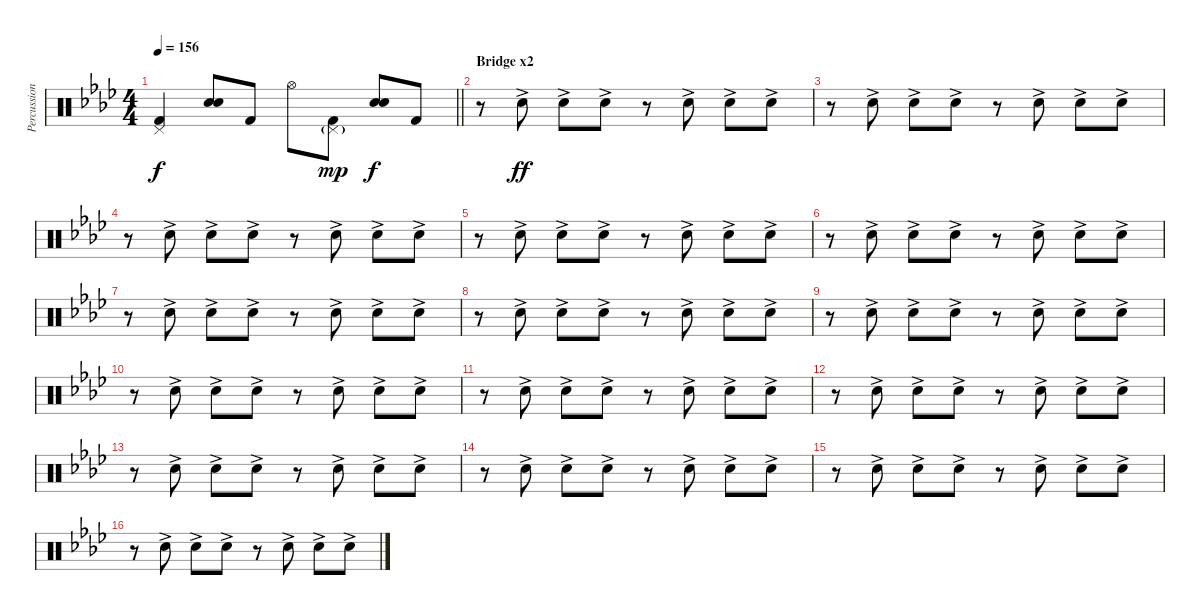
\track ("Percussion" "Percussion") {instrument percussion}
\staff {score}
\articulation defaults
\ts (4 4)
\tempo 156
\clef neutral
\barLineRight lightlight
\ks fminor
("Pedal Hi-Hat (hit)" "Kick (hit) 2").4{dy f} ("Hand Clap (hit)" "Electric Snare (hit)").8 "Kick (hit) 2".8 "Hi-Hat (open)".8 ("Pedal Hi-Hat (hit)"{g} "Kick (hit) 2").8{dy mp} ("Hand Clap (hit)" "Electric Snare (hit)").8{dy f} "Kick (hit) 2".8 |
\section ("" "Bridge x2")
r.8 "Hand Clap (hit)"{ac}.8{dy ff} "Hand Clap (hit)"{ac}.8 "Hand Clap (hit)"{ac}.8 r.8 "Hand Clap (hit)"{ac}.8 "Hand Clap (hit)"{ac}.8 "Hand Clap (hit)"{ac}.8 |
r.8 "Hand Clap (hit)"{ac}.8 "Hand Clap (hit)"{ac}.8 "Hand Clap (hit)"{ac}.8 r.8 "Hand Clap (hit)"{ac}.8 "Hand Clap (hit)"{ac}.8 "Hand Clap (hit)"{ac}.8 |
r.8 "Hand Clap (hit)"{ac}.8 "Hand Clap (hit)"{ac}.8 "Hand Clap (hit)"{ac}.8 r.8 "Hand Clap (hit)"{ac}.8 "Hand Clap (hit)"{ac}.8 "Hand Clap (hit)"{ac}.8 |
r.8 "Hand Clap (hit)"{ac}.8 "Hand Clap (hit)"{ac}.8 "Hand Clap (hit)"{ac}.8 r.8 "Hand Clap (hit)"{ac}.8 "Hand Clap (hit)"{ac}.8 "Hand Clap (hit)"{ac}.8 |
r.8 "Hand Clap (hit)"{ac}.8 "Hand Clap (hit)"{ac}.8 "Hand Clap (hit)"{ac}.8 r.8 "Hand Clap (hit)"{ac}.8 "Hand Clap (hit)"{ac}.8 "Hand Clap (hit)"{ac}.8 |
r.8 "Hand Clap (hit)"{ac}.8 "Hand Clap (hit)"{ac}.8 "Hand Clap (hit)"{ac}.8 r.8 "Hand Clap (hit)"{ac}.8 "Hand Clap (hit)"{ac}.8 "Hand Clap (hit)"{ac}.8 |
r.8 "Hand Clap (hit)"{ac}.8 "Hand Clap (hit)"{ac}.8 "Hand Clap (hit)"{ac}.8 r.8 "Hand Clap (hit)"{ac}.8 "Hand Clap (hit)"{ac}.8 "Hand Clap (hit)"{ac}.8 |
r.8 "Hand Clap (hit)"{ac}.8 "Hand Clap (hit)"{ac}.8 "Hand Clap (hit)"{ac}.8 r.8 "Hand Clap (hit)"{ac}.8 "Hand Clap (hit)"{ac}.8 "Hand Clap (hit)"{ac}.8 |
r.8 "Hand Clap (hit)"{ac}.8 "Hand Clap (hit)"{ac}.8 "Hand Clap (hit)"{ac}.8 r.8 "Hand Clap (hit)"{ac}.8 "Hand Clap (hit)"{ac}.8 "Hand Clap (hit)"{ac}.8 |
r.8 "Hand Clap (hit)"{ac}.8 "Hand Clap (hit)"{ac}.8 "Hand Clap (hit)"{ac}.8 r.8 "Hand Clap (hit)"{ac}.8 "Hand Clap (hit)"{ac}.8 "Hand Clap (hit)"{ac}.8 |
r.8 "Hand Clap (hit)"{ac}.8 "Hand Clap (hit)"{ac}.8 "Hand Clap (hit)"{ac}.8 r.8 "Hand Clap (hit)"{ac}.8 "Hand Clap (hit)"{ac}.8 "Hand Clap (hit)"{ac}.8 |
r.8 "Hand Clap (hit)"{ac}.8 "Hand Clap (hit)"{ac}.8 "Hand Clap (hit)"{ac}.8 r.8 "Hand Clap (hit)"{ac}.8 "Hand Clap (hit)"{ac}.8 "Hand Clap (hit)"{ac}.8 |
r.8 "Hand Clap (hit)"{ac}.8 "Hand Clap (hit)"{ac}.8 "Hand Clap (hit)"{ac}.8 r.8 "Hand Clap (hit)"{ac}.8 "Hand Clap (hit)"{ac}.8 "Hand Clap (hit)"{ac}.8 |
r.8 "Hand Clap (hit)"{ac}.8 "Hand Clap (hit)"{ac}.8 "Hand Clap (hit)"{ac}.8 r.8 "Hand Clap (hit)"{ac}.8 "Hand Clap (hit)"{ac}.8 "Hand Clap (hit)"{ac}.8 |
r.8 "Hand Clap (hit)"{ac}.8 "Hand Clap (hit)"{ac}.8 "Hand Clap (hit)"{ac}.8 r.8 "Hand Clap (hit)"{ac}.8 "Hand Clap (hit)"{ac}.8 "Hand Clap (hit)"{ac}.8
